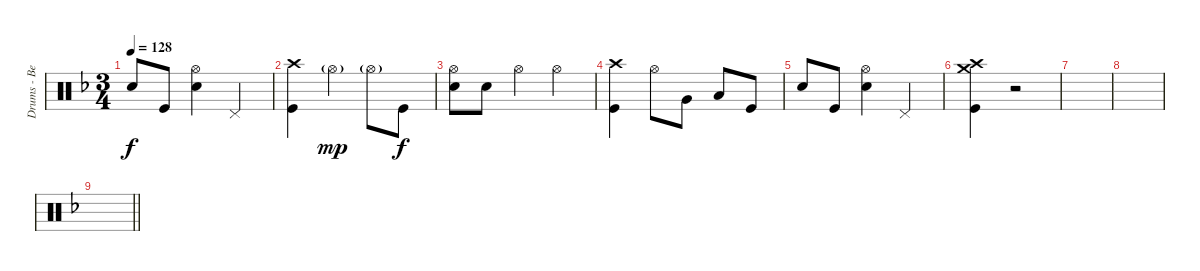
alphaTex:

\track ("Drums - Ben Johnston" "Drums - Be") {instrument percussion}
\staff {score}
\articulation defaults
\ts (3 4)
\tempo 128
\clef neutral
\ks dminor "Snare (hit) 2".8{dy f} "Kick (hit)".8
("Hi-Hat (open)" "Snare (hit) 2").4 "Pedal Hi-Hat (hit)".4 |
("Crash high (hit)" "Kick (hit)").4 "Hi-Hat (open)"{g}.4{dy mp} "Hi-Hat (open)"{g}.8 "Kick (hit)".8{dy f} |
("Hi-Hat (open)" "Snare (hit) 2").8 "Snare (hit) 2".8 "Hi-Hat (open)".4 "Hi-Hat (open)".4 |
("Crash high (hit)" "Kick (hit)").4 "Hi-Hat (open)".8 "Very Low Tom (hit)".8 "Low Floor Tom (hit)".8 "Kick (hit)".8 |
"Snare (hit) 2".8 "Kick (hit)".8 ("Hi-Hat (open)" "Snare (hit) 2").4 "Pedal Hi-Hat (hit)".4 |
("Crash medium (hit)" "Crash high (hit)" "Kick (hit)").4 r.2 |
|
|
\barLineRight lightlight
